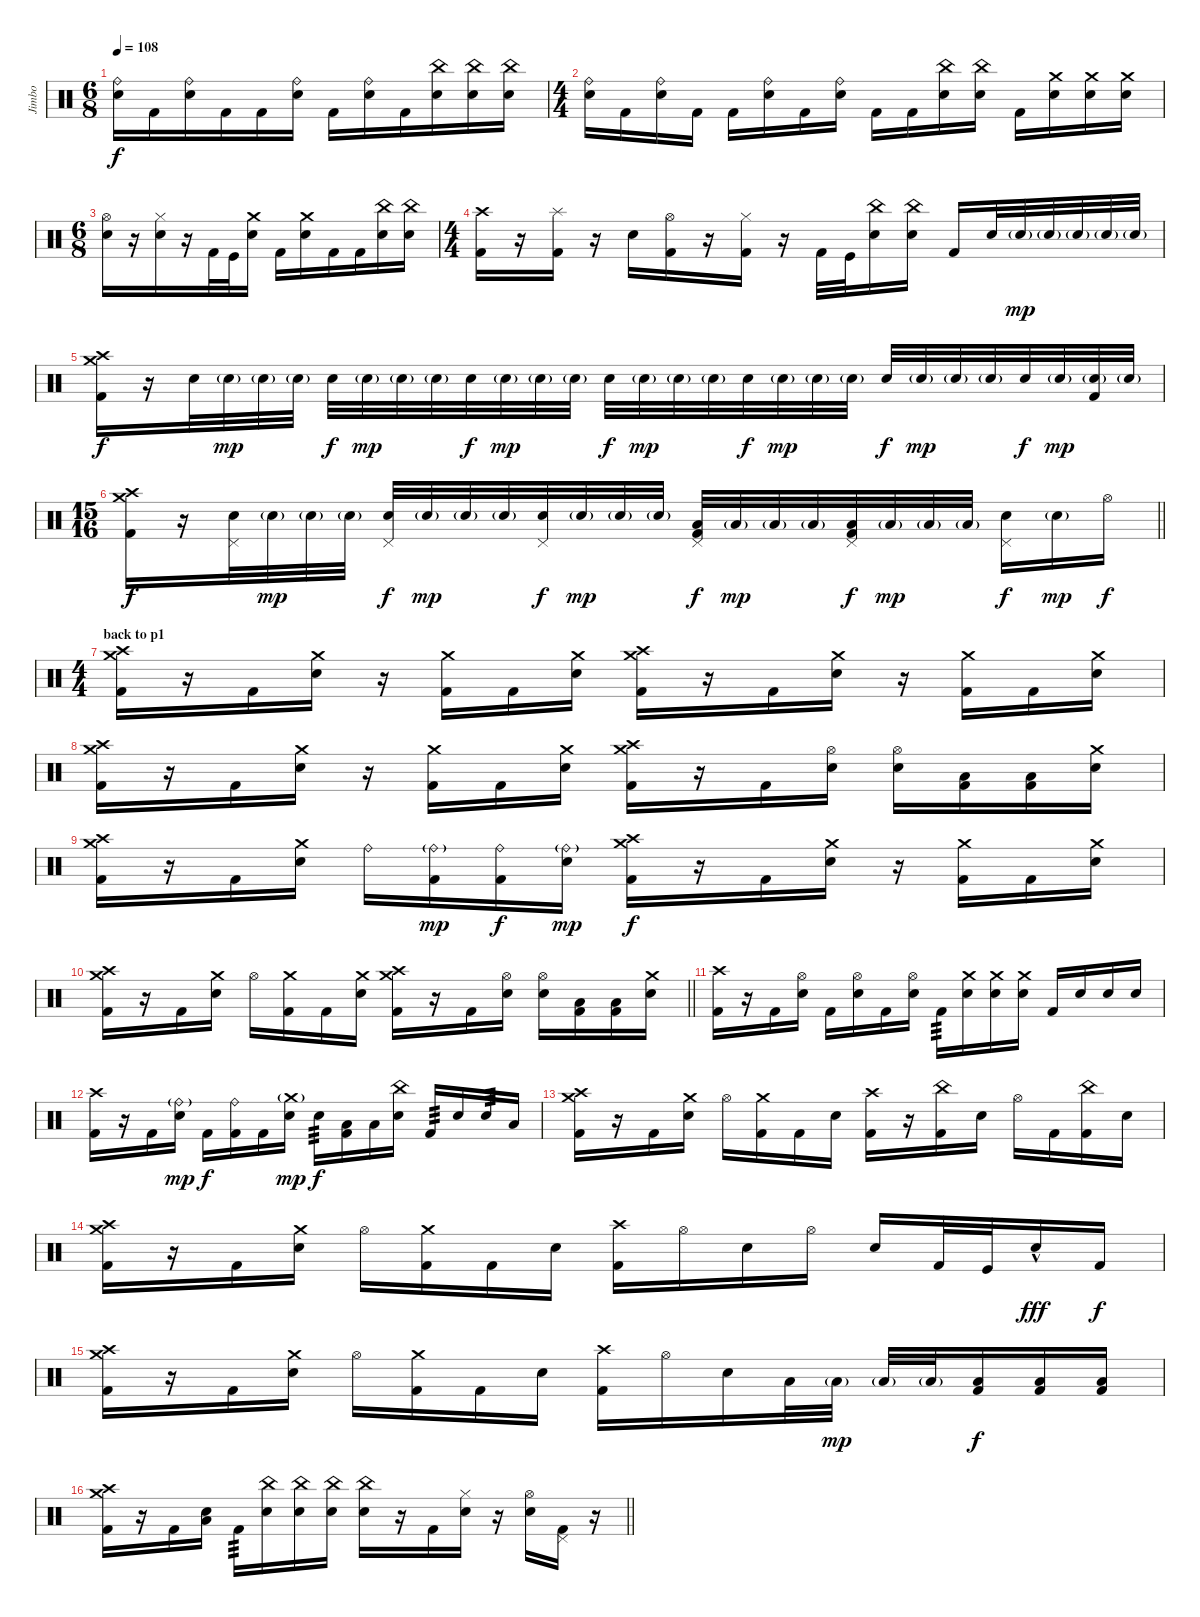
\track ("Jimbo" "Jimbo") {instrument percussion}
\staff
\articulation defaults
\ts (6 8)
\tempo 108
\clef neutral
\ks c
("Electric Snare (hit)" "Ride (bell)").16{dy f} "Kick (hit) 2".16 ("Electric Snare (hit)" "Ride (bell)").16 "Kick (hit) 2".16 "Kick (hit) 2".16 ("Electric Snare (hit)" "Ride (bell)").16 "Kick (hit) 2".16 ("Electric Snare (hit)" "Ride (bell)").16 "Kick (hit) 2".16 ("Electric Snare (hit)" "China (hit)").16 ("Electric Snare (hit)" "China (hit)").16 ("Electric Snare (hit)" "China (hit)").16 |
\ts (4 4)
("Electric Snare (hit)" "Ride (bell)").16 "Kick (hit) 2".16 ("Electric Snare (hit)" "Ride (bell)").16 "Kick (hit) 2".16 "Kick (hit) 2".16 ("Electric Snare (hit)" "Ride (bell)").16 "Kick (hit) 2".16 ("Electric Snare (hit)" "Ride (bell)").16 "Kick (hit) 2".16 "Kick (hit) 2".16 ("Electric Snare (hit)" "China (hit)").16 ("Electric Snare (hit)" "China (hit)").16 "Kick (hit) 2".16 ("Electric Snare (hit)" "Crash medium (hit)").16 ("Electric Snare (hit)" "Crash medium (hit)").16 ("Electric Snare (hit)" "Crash medium (hit)").16 |
\ts (6 8)
("Electric Snare (hit)" "Hi-Hat (open)").16 r.16 ("Electric Snare (hit)" "Hi-Hat (closed)").16 r.16 "Kick (hit) 2".32 "Kick (hit)".32 ("Electric Snare (hit)" "Crash medium (hit)").16 "Kick (hit) 2".16 ("Electric Snare (hit)" "Crash medium (hit)").16 "Kick (hit) 2".16 "Kick (hit) 2".16 ("Electric Snare (hit)" "China (hit)").16 ("Electric Snare (hit)" "China (hit)").16 |
\ts (4 4)
("Kick (hit) 2" "Crash high (hit)").16 r.16 ("Kick (hit) 2" "Splash (hit)").16 r.16 "Electric Snare (hit)".16 ("Kick (hit) 2" "Hi-Hat (open)").16 r.16 ("Kick (hit) 2" "Hi-Hat (closed)").16 r.16 "Kick (hit) 2".32 "Kick (hit)".32 ("Electric Snare (hit)" "China (hit)").16 ("Electric Snare (hit)" "China (hit)").16 "Kick (hit) 2".16 "Electric Snare (hit)".32 "Electric Snare (hit)"{g}.32{dy mp} "Electric Snare (hit)"{g}.32 "Electric Snare (hit)"{g}.32 "Electric Snare (hit)"{g}.32 "Electric Snare (hit)"{g}.32 |
("Kick (hit) 2" "Crash medium (hit)" "Crash high (hit)").16{dy f} r.16 "Electric Snare (hit)".32 "Electric Snare (hit)"{g}.32{dy mp} "Electric Snare (hit)"{g}.32 "Electric Snare (hit)"{g}.32 "Electric Snare (hit)".32{dy f} "Electric Snare (hit)"{g}.32{dy mp} "Electric Snare (hit)"{g}.32 "Electric Snare (hit)"{g}.32 "Electric Snare (hit)".32{dy f} "Electric Snare (hit)"{g}.32{dy mp} "Electric Snare (hit)"{g}.32 "Electric Snare (hit)"{g}.32 "Electric Snare (hit)".32{dy f} "Electric Snare (hit)"{g}.32{dy mp} "Electric Snare (hit)"{g}.32 "Electric Snare (hit)"{g}.32 "Electric Snare (hit)".32{dy f} "Electric Snare (hit)"{g}.32{dy mp} "Electric Snare (hit)"{g}.32 "Electric Snare (hit)"{g}.32 "Electric Snare (hit)".32{dy f} "Electric Snare (hit)"{g}.32{dy mp} "Electric Snare (hit)"{g}.32 "Electric Snare (hit)"{g}.32 "Electric Snare (hit)".32{dy f} "Electric Snare (hit)"{g}.32{dy mp} ("Electric Snare (hit)"{g} "Kick (hit) 2").32 "Electric Snare (hit)"{g}.32 |
\ts (15 16)
\barLineRight lightlight
("Kick (hit) 2" "Crash medium (hit)" "Crash high (hit)").16{dy f} r.16 ("Electric Snare (hit)" "Pedal Hi-Hat (hit)").32 "Electric Snare (hit)"{g}.32{dy mp} "Electric Snare (hit)"{g}.32 "Electric Snare (hit)"{g}.32 ("Electric Snare (hit)" "Pedal Hi-Hat (hit)").32{dy f} "Electric Snare (hit)"{g}.32{dy mp} "Electric Snare (hit)"{g}.32 "Electric Snare (hit)"{g}.32 ("Electric Snare (hit)" "Pedal Hi-Hat (hit)").32{dy f} "Electric Snare (hit)"{g}.32{dy mp} "Electric Snare (hit)"{g}.32 "Electric Snare (hit)"{g}.32 ("Low Tom (hit)" "Pedal Hi-Hat (hit)" "Kick (hit) 2").32{dy f} "Low Tom (hit)"{g}.32{dy mp} "Low Tom (hit)"{g}.32 "Low Tom (hit)"{g}.32 ("Low Floor Tom (hit)" "Pedal Hi-Hat (hit)" "Kick (hit) 2").32{dy f} "Low Floor Tom (hit)"{g}.32{dy mp} "Low Floor Tom (hit)"{g}.32 "Low Floor Tom (hit)"{g}.32 ("Electric Snare (hit)" "Pedal Hi-Hat (hit)").16{dy f} "Electric Snare (hit)"{g}.16{dy mp} "Hi-Hat (open)".16{dy f} |
\ts (4 4)
\section ("" "back to p1")
("Kick (hit) 2" "Crash medium (hit)" "Crash high (hit)").16 r.16 "Kick (hit) 2".16 ("Electric Snare (hit)" "Crash medium (hit)").16 r.16 ("Kick (hit) 2" "Crash medium (hit)").16 "Kick (hit) 2".16 ("Electric Snare (hit)" "Crash medium (hit)").16 ("Kick (hit) 2" "Crash medium (hit)" "Crash high (hit)").16 r.16 "Kick (hit) 2".16 ("Electric Snare (hit)" "Crash medium (hit)").16 r.16 ("Kick (hit) 2" "Crash medium (hit)").16 "Kick (hit) 2".16 ("Electric Snare (hit)" "Crash medium (hit)").16 |
("Kick (hit) 2" "Crash medium (hit)" "Crash high (hit)").16 r.16 "Kick (hit) 2".16 ("Electric Snare (hit)" "Crash medium (hit)").16 r.16 ("Kick (hit) 2" "Crash medium (hit)").16 "Kick (hit) 2".16 ("Electric Snare (hit)" "Crash medium (hit)").16 ("Kick (hit) 2" "Crash medium (hit)" "Crash high (hit)").16 r.16 "Kick (hit) 2".16 ("Electric Snare (hit)" "Hi-Hat (open)").16 ("Electric Snare (hit)" "Hi-Hat (open)").16 ("Kick (hit) 2" "Low Tom (hit)").16 ("Kick (hit) 2" "Low Floor Tom (hit)").16 ("Electric Snare (hit)" "Crash medium (hit)").16 |
("Kick (hit) 2" "Crash medium (hit)" "Crash high (hit)").16 r.16 "Kick (hit) 2".16 ("Electric Snare (hit)" "Crash medium (hit)").16 "Ride (bell)".16 ("Kick (hit) 2" "Ride (bell)"{g}).16{dy mp} ("Kick (hit) 2" "Ride (bell)").16{dy f} ("Electric Snare (hit)" "Ride (bell)"{g}).16{dy mp} ("Kick (hit) 2" "Crash medium (hit)" "Crash high (hit)").16{dy f} r.16 "Kick (hit) 2".16 ("Electric Snare (hit)" "Crash medium (hit)").16 r.16 ("Kick (hit) 2" "Crash medium (hit)").16 "Kick (hit) 2".16 ("Electric Snare (hit)" "Crash medium (hit)").16 |
\barLineRight lightlight
("Kick (hit) 2" "Crash medium (hit)" "Crash high (hit)").16 r.16 "Kick (hit) 2".16 ("Electric Snare (hit)" "Crash medium (hit)").16 "Hi-Hat (open)".16 ("Kick (hit) 2" "Crash medium (hit)").16 "Kick (hit) 2".16 ("Electric Snare (hit)" "Crash medium (hit)").16 ("Kick (hit) 2" "Crash medium (hit)" "Crash high (hit)").16 r.16 "Kick (hit) 2".16 ("Electric Snare (hit)" "Hi-Hat (open)").16 ("Electric Snare (hit)" "Hi-Hat (open)").16 ("Kick (hit) 2" "Low Tom (hit)").16 ("Kick (hit) 2" "Low Floor Tom (hit)").16 ("Electric Snare (hit)" "Crash medium (hit)").16 |
("Kick (hit) 2" "Crash high (hit)").16 r.16 "Kick (hit) 2".16 ("Electric Snare (hit)" "Hi-Hat (open)").16 "Kick (hit) 2".16 ("Electric Snare (hit)" "Hi-Hat (open)").16 "Kick (hit) 2".16 ("Electric Snare (hit)" "Hi-Hat (open)").16 "Kick (hit) 2".16{tp 3} ("Electric Snare (hit)" "Crash medium (hit)").16 ("Electric Snare (hit)" "Crash medium (hit)").16 ("Electric Snare (hit)" "Crash medium (hit)").16 "Kick (hit) 2".16 "Electric Snare (hit)".16 "Electric Snare (hit)".16 "Electric Snare (hit)".16 |
("Kick (hit) 2" "Crash high (hit)").16 r.16 "Kick (hit) 2".16 ("Electric Snare (hit)" "Ride (bell)"{g}).16{dy mp} "Kick (hit) 2".16{dy f} ("Kick (hit) 2" "Ride (bell)").16 "Kick (hit) 2".16 ("Electric Snare (hit)" "Crash medium (hit)"{g}).16{dy mp} "Electric Snare (hit)".16{tp 3 dy f} ("Low Tom (hit)" "Kick (hit) 2").16 "Low Floor Tom (hit)".16 ("Electric Snare (hit)" "China (hit)").16 "Kick (hit) 2".16{tp 3} "Electric Snare (hit)".16 "Electric Snare (hit)".16{tp 3} "Low Tom (hit)".16 |
("Kick (hit) 2" "Crash medium (hit)" "Crash high (hit)").16 r.16 "Kick (hit) 2".16 ("Electric Snare (hit)" "Crash medium (hit)").16 "Hi-Hat (open)".16 ("Kick (hit) 2" "Crash medium (hit)").16 "Kick (hit) 2".16 "Electric Snare (hit)".16 ("Kick (hit) 2" "Crash high (hit)").16 r.16 ("Kick (hit) 2" "China (hit)").16 "Electric Snare (hit)".16 "Hi-Hat (open)".16 "Kick (hit) 2".16 ("Kick (hit) 2" "China (hit)").16 "Electric Snare (hit)".16 |
("Kick (hit) 2" "Crash medium (hit)" "Crash high (hit)").16 r.16 "Kick (hit) 2".16 ("Electric Snare (hit)" "Crash medium (hit)").16 "Hi-Hat (open)".16 ("Kick (hit) 2" "Crash medium (hit)").16 "Kick (hit) 2".16 "Electric Snare (hit)".16 ("Kick (hit) 2" "Crash high (hit)").16 "Hi-Hat (open)".16 "Electric Snare (hit)".16 "Hi-Hat (open)".16 "Electric Snare (hit)".16 "Kick (hit) 2".32 "Kick (hit)".32 "Electric Snare (hit)"{hac}.16{dy fff} "Kick (hit) 2".16{dy f} |
("Kick (hit) 2" "Crash medium (hit)" "Crash high (hit)").16 r.16 "Kick (hit) 2".16 ("Electric Snare (hit)" "Crash medium (hit)").16 "Hi-Hat (open)".16 ("Kick (hit) 2" "Crash medium (hit)").16 "Kick (hit) 2".16 "Electric Snare (hit)".16 ("Kick (hit) 2" "Crash high (hit)").16 "Hi-Hat (open)".16 "Electric Snare (hit)".16 "Low Tom (hit)".32 "Low Tom (hit)"{g}.32{dy mp} "Low Tom (hit)"{g}.32 "Low Tom (hit)"{g}.32 ("Low Tom (hit)" "Kick (hit) 2").16{dy f} ("Low Tom (hit)" "Kick (hit) 2").16 ("Low Floor Tom (hit)" "Kick (hit) 2").16 |
\barLineRight lightlight
("Kick (hit) 2" "Crash medium (hit)" "Crash high (hit)").16 r.16 "Kick (hit) 2".16 ("Electric Snare (hit)" "Low Floor Tom (hit)").16 "Kick (hit) 2".16{tp 3} ("Electric Snare (hit)" "China (hit)").16 ("Electric Snare (hit)" "China (hit)").16 ("Electric Snare (hit)" "China (hit)").16 ("Electric Snare (hit)" "China (hit)").16 r.16 "Kick (hit) 2".16 ("Electric Snare (hit)" "Hi-Hat (closed)").16 r.16 ("Electric Snare (hit)" "Hi-Hat (open)").16 ("Kick (hit) 2" "Pedal Hi-Hat (hit)").16 r.16
